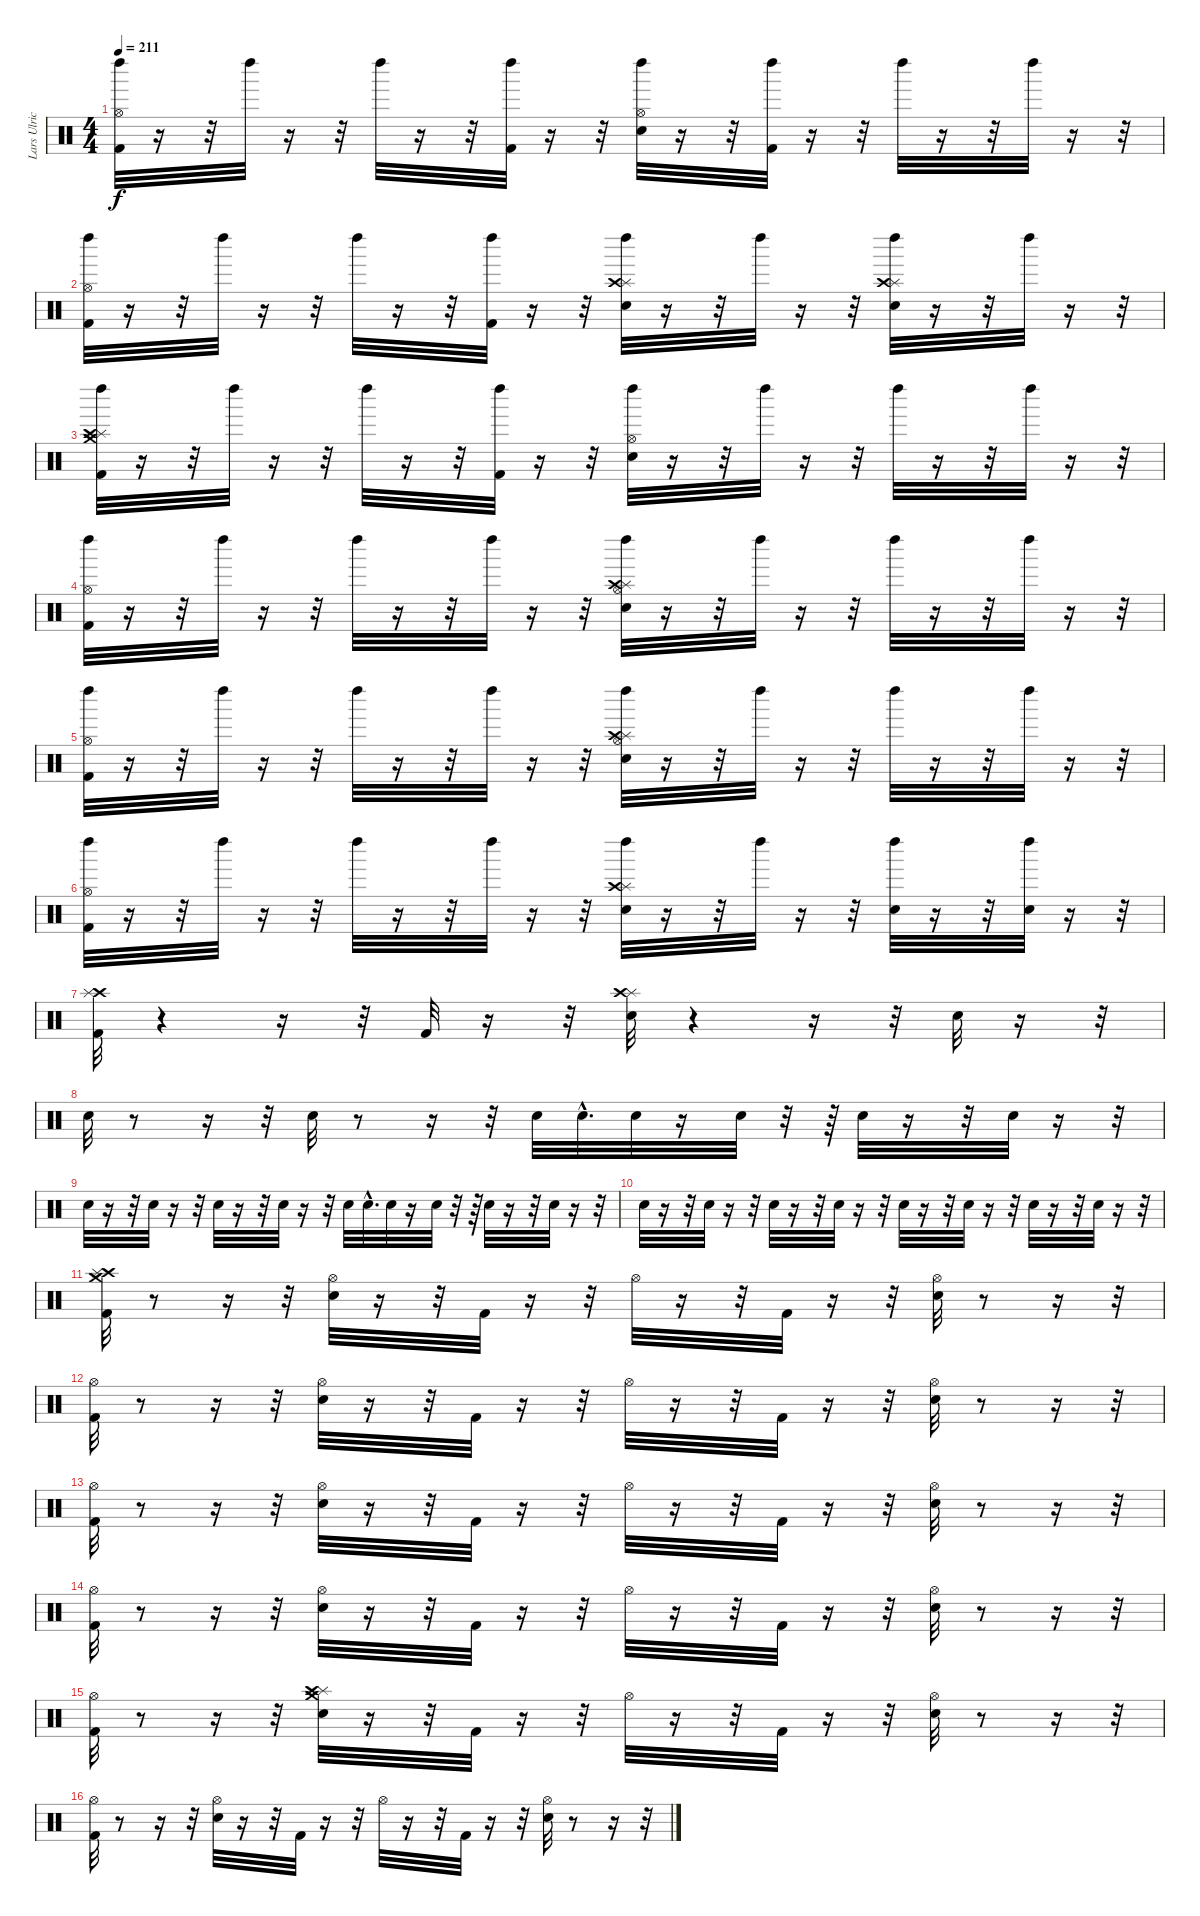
\track ("Lars Ulrich (Drums)" "Lars Ulric") {instrument percussion}
\staff {score}
\articulation defaults
\ts (4 4)
\tempo 211
\clef neutral
\ks c
("Left Maraca (hit)" "Hi-Hat (open)" "Kick (hit) 2").32{dy f} r.16 r.32 "Left Maraca (hit)".32 r.16 r.32 "Left Maraca (hit)".32 r.16 r.32 ("Left Maraca (hit)" "Kick (hit) 2").32 r.16 r.32 ("Left Maraca (hit)" "Hi-Hat (open)" "Snare (hit) 2").32 r.16 r.32 ("Kick (hit) 2" "Left Maraca (hit)").32 r.16 r.32 "Left Maraca (hit)".32 r.16 r.32 "Left Maraca (hit)".32 r.16 r.32 |
("Left Maraca (hit)" "Hi-Hat (open)" "Kick (hit) 2").32 r.16 r.32 "Left Maraca (hit)".32 r.16 r.32 "Left Maraca (hit)".32 r.16 r.32 ("Left Maraca (hit)" "Kick (hit) 2").32 r.16 r.32 ("Splash (hit)" "Crash high (hit)" "Left Maraca (hit)" "Snare (hit) 2").32 r.16 r.32 "Left Maraca (hit)".32 r.16 r.32 ("Splash (hit)" "Crash high (hit)" "Snare (hit) 2" "Left Maraca (hit)").32 r.16 r.32 "Left Maraca (hit)".32 r.16 r.32 |
("Left Maraca (hit)" "Crash medium (hit)" "Splash (hit)" "Crash high (hit)" "Kick (hit) 2").32 r.16 r.32 "Left Maraca (hit)".32 r.16 r.32 "Left Maraca (hit)".32 r.16 r.32 ("Kick (hit) 2" "Left Maraca (hit)").32 r.16 r.32 ("Left Maraca (hit)" "Hi-Hat (open)" "Snare (hit) 2").32 r.16 r.32 "Left Maraca (hit)".32 r.16 r.32 "Left Maraca (hit)".32 r.16 r.32 "Left Maraca (hit)".32 r.16 r.32 |
("Left Maraca (hit)" "Hi-Hat (open)" "Kick (hit) 2").32 r.16 r.32 "Left Maraca (hit)".32 r.16 r.32 "Left Maraca (hit)".32 r.16 r.32 "Left Maraca (hit)".32 r.16 r.32 ("Splash (hit)" "Crash high (hit)" "Left Maraca (hit)" "Hi-Hat (open)" "Snare (hit) 2").32 r.16 r.32 "Left Maraca (hit)".32 r.16 r.32 "Left Maraca (hit)".32 r.16 r.32 "Left Maraca (hit)".32 r.16 r.32 |
("Left Maraca (hit)" "Hi-Hat (open)" "Kick (hit) 2").32 r.16 r.32 "Left Maraca (hit)".32 r.16 r.32 "Left Maraca (hit)".32 r.16 r.32 "Left Maraca (hit)".32 r.16 r.32 ("Splash (hit)" "Crash high (hit)" "Left Maraca (hit)" "Hi-Hat (open)" "Snare (hit) 2").32 r.16 r.32 "Left Maraca (hit)".32 r.16 r.32 "Left Maraca (hit)".32 r.16 r.32 "Left Maraca (hit)".32 r.16 r.32 |
("Left Maraca (hit)" "Hi-Hat (open)" "Kick (hit) 2").32 r.16 r.32 "Left Maraca (hit)".32 r.16 r.32 "Left Maraca (hit)".32 r.16 r.32 "Left Maraca (hit)".32 r.16 r.32 ("Splash (hit)" "Crash high (hit)" "Left Maraca (hit)" "Snare (hit) 2").32 r.16 r.32 "Left Maraca (hit)".32 r.16 r.32 ("Snare (hit) 2" "Left Maraca (hit)").32 r.16 r.32 ("Snare (hit) 2" "Left Maraca (hit)").32 r.16 r.32 |
("Kick (hit) 2" "Crash high (hit)" "Splash (hit)").32 r.4 r.16 r.32 "Kick (hit) 2".32 r.16 r.32 ("Splash (hit)" "Crash high (hit)" "Snare (hit) 2").32 r.4 r.16 r.32 "Snare (hit) 2".32 r.16 r.32 |
"Snare (hit) 2".32 r.8 r.16 r.32 "Snare (hit) 2".32 r.8 r.16 r.32 "Snare (hit) 2".32 "Snare (hit) 2"{hac}.32{d} "Snare (hit) 2".32 r.16 "Snare (hit) 2".32 r.32 r.64 "Snare (hit) 2".32 r.16 r.32 "Snare (hit) 2".32 r.16 r.32 |
"Snare (hit) 2".32 r.16 r.32 "Snare (hit) 2".32 r.16 r.32 "Snare (hit) 2".32 r.16 r.32 "Snare (hit) 2".32 r.16 r.32 "Snare (hit) 2".32 "Snare (hit) 2"{hac}.32{d} "Snare (hit) 2".32 r.16 "Snare (hit) 2".32 r.32 r.64 "Snare (hit) 2".32 r.16 r.32 "Snare (hit) 2".32 r.16 r.32 |
"Snare (hit) 2".32 r.16 r.32 "Snare (hit) 2".32 r.16 r.32 "Snare (hit) 2".32 r.16 r.32 "Snare (hit) 2".32 r.16 r.32 "Snare (hit) 2".32 r.16 r.32 "Snare (hit) 2".32 r.16 r.32 "Snare (hit) 2".32 r.16 r.32 "Snare (hit) 2".32 r.16 r.32 |
("Kick (hit) 2" "Crash high (hit)" "Crash medium (hit)" "Splash (hit)").32 r.8 r.16 r.32 ("Snare (hit) 2" "Hi-Hat (open)").32 r.16 r.32 "Kick (hit) 2".32 r.16 r.32 "Hi-Hat (open)".32 r.16 r.32 "Kick (hit) 2".32 r.16 r.32 ("Snare (hit) 2" "Hi-Hat (open)").32 r.8 r.16 r.32 |
("Kick (hit) 2" "Hi-Hat (open)").32 r.8 r.16 r.32 ("Snare (hit) 2" "Hi-Hat (open)").32 r.16 r.32 "Kick (hit) 2".32 r.16 r.32 "Hi-Hat (open)".32 r.16 r.32 "Kick (hit) 2".32 r.16 r.32 ("Snare (hit) 2" "Hi-Hat (open)").32 r.8 r.16 r.32 |
("Kick (hit) 2" "Hi-Hat (open)").32 r.8 r.16 r.32 ("Snare (hit) 2" "Hi-Hat (open)").32 r.16 r.32 "Kick (hit) 2".32 r.16 r.32 "Hi-Hat (open)".32 r.16 r.32 "Kick (hit) 2".32 r.16 r.32 ("Snare (hit) 2" "Hi-Hat (open)").32 r.8 r.16 r.32 |
("Kick (hit) 2" "Hi-Hat (open)").32 r.8 r.16 r.32 ("Snare (hit) 2" "Hi-Hat (open)").32 r.16 r.32 "Kick (hit) 2".32 r.16 r.32 "Hi-Hat (open)".32 r.16 r.32 "Kick (hit) 2".32 r.16 r.32 ("Snare (hit) 2" "Hi-Hat (open)").32 r.8 r.16 r.32 |
("Kick (hit) 2" "Hi-Hat (open)").32 r.8 r.16 r.32 ("Splash (hit)" "Crash medium (hit)" "Crash high (hit)" "Snare (hit) 2").32 r.16 r.32 "Kick (hit) 2".32 r.16 r.32 "Hi-Hat (open)".32 r.16 r.32 "Kick (hit) 2".32 r.16 r.32 ("Snare (hit) 2" "Hi-Hat (open)").32 r.8 r.16 r.32 |
("Kick (hit) 2" "Hi-Hat (open)").32 r.8 r.16 r.32 ("Snare (hit) 2" "Hi-Hat (open)").32 r.16 r.32 "Kick (hit) 2".32 r.16 r.32 "Hi-Hat (open)".32 r.16 r.32 "Kick (hit) 2".32 r.16 r.32 ("Snare (hit) 2" "Hi-Hat (open)").32 r.8 r.16 r.32
